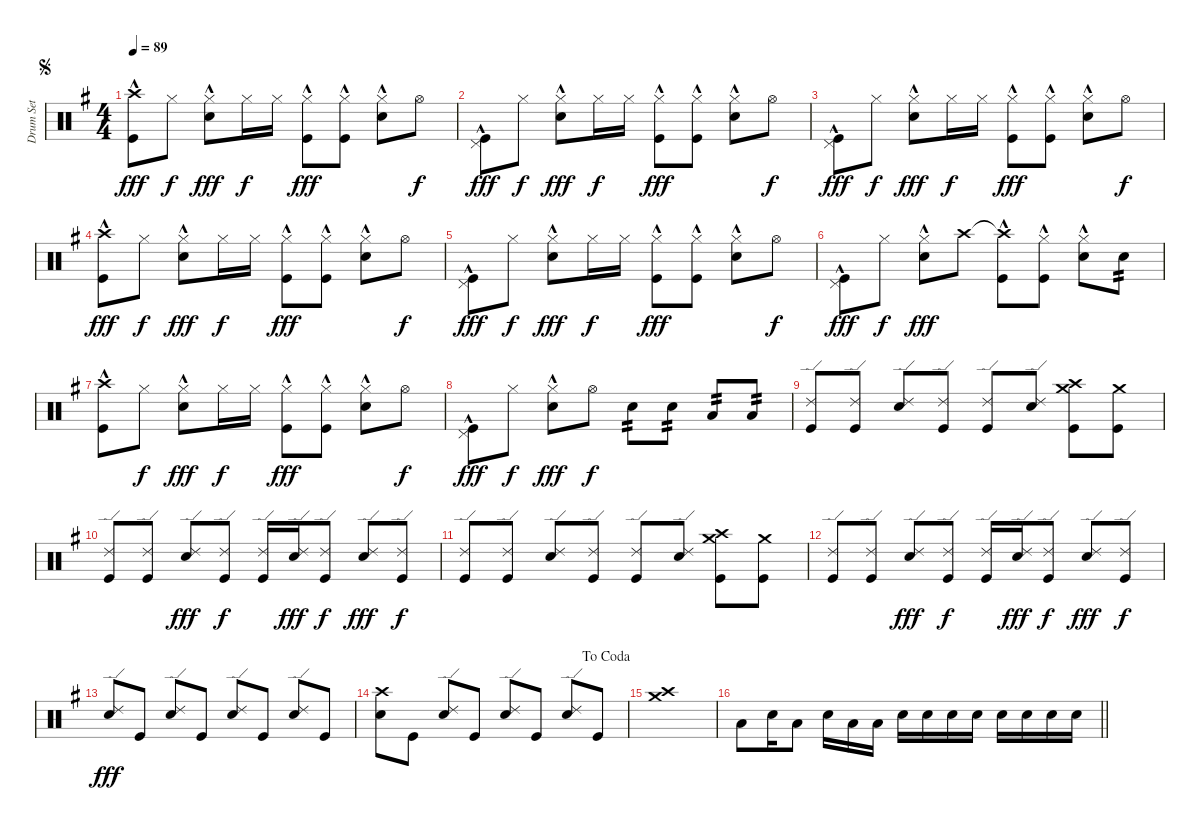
\track ("Drum Set" "Drum Set") {instrument percussion}
\staff {score}
\articulation defaults
\ts (4 4)
\jump segno
\tempo 89
\clef neutral
\ks g
("Crash high (hit)" "Kick (hit)"{hac}).8{dy fff} "Hi-Hat (closed)".8{dy f} ("Hi-Hat (closed)" "Snare (hit) 2"{hac}).8{dy fff} "Hi-Hat (closed)".16{dy f} "Hi-Hat (closed)".16 ("Hi-Hat (closed)" "Kick (hit)"{hac}).8{dy fff} ("Hi-Hat (closed)" "Kick (hit)"{hac}).8 ("Hi-Hat (closed)" "Snare (hit) 2"{hac}).8 "Hi-Hat (open)".8{dy f} |
("Pedal Hi-Hat (hit)" "Kick (hit)"{hac}).8{dy fff} "Hi-Hat (closed)".8{dy f} ("Hi-Hat (closed)" "Snare (hit) 2"{hac}).8{dy fff} "Hi-Hat (closed)".16{dy f} "Hi-Hat (closed)".16 ("Hi-Hat (closed)" "Kick (hit)"{hac}).8{dy fff} ("Hi-Hat (closed)" "Kick (hit)"{hac}).8 ("Hi-Hat (closed)" "Snare (hit) 2"{hac}).8 "Hi-Hat (open)".8{dy f} |
("Pedal Hi-Hat (hit)" "Kick (hit)"{hac}).8{dy fff} "Hi-Hat (closed)".8{dy f} ("Hi-Hat (closed)" "Snare (hit) 2"{hac}).8{dy fff} "Hi-Hat (closed)".16{dy f} "Hi-Hat (closed)".16 ("Hi-Hat (closed)" "Kick (hit)"{hac}).8{dy fff} ("Hi-Hat (closed)" "Kick (hit)"{hac}).8 ("Hi-Hat (closed)" "Snare (hit) 2"{hac}).8 "Hi-Hat (open)".8{dy f} |
("Crash high (hit)" "Kick (hit)"{hac}).8{dy fff} "Hi-Hat (closed)".8{dy f} ("Hi-Hat (closed)" "Snare (hit) 2"{hac}).8{dy fff} "Hi-Hat (closed)".16{dy f} "Hi-Hat (closed)".16 ("Hi-Hat (closed)" "Kick (hit)"{hac}).8{dy fff} ("Hi-Hat (closed)" "Kick (hit)"{hac}).8 ("Hi-Hat (closed)" "Snare (hit) 2"{hac}).8 "Hi-Hat (open)".8{dy f} |
("Pedal Hi-Hat (hit)" "Kick (hit)"{hac}).8{dy fff} "Hi-Hat (closed)".8{dy f} ("Hi-Hat (closed)" "Snare (hit) 2"{hac}).8{dy fff} "Hi-Hat (closed)".16{dy f} "Hi-Hat (closed)".16 ("Hi-Hat (closed)" "Kick (hit)"{hac}).8{dy fff} ("Hi-Hat (closed)" "Kick (hit)"{hac}).8 ("Hi-Hat (closed)" "Snare (hit) 2"{hac}).8 "Hi-Hat (open)".8{dy f} |
("Pedal Hi-Hat (hit)" "Kick (hit)"{hac}).8{dy fff} "Hi-Hat (closed)".8{dy f} ("Hi-Hat (closed)" "Snare (hit) 2"{hac}).8{dy fff} "Crash high (hit)".8 ("Crash high (hit)"{t} "Kick (hit)"{hac}).8 ("Hi-Hat (closed)" "Kick (hit)"{hac}).8 ("Hi-Hat (closed)" "Snare (hit) 2"{hac}).8 "Snare (hit) 2".8{tp 2} |
("Crash high (hit)" "Kick (hit)"{hac}).8 "Hi-Hat (closed)".8{dy f} ("Hi-Hat (closed)" "Snare (hit) 2"{hac}).8{dy fff} "Hi-Hat (closed)".16{dy f} "Hi-Hat (closed)".16 ("Hi-Hat (closed)" "Kick (hit)"{hac}).8{dy fff} ("Hi-Hat (closed)" "Kick (hit)"{hac}).8 ("Hi-Hat (closed)" "Snare (hit) 2"{hac}).8 "Hi-Hat (open)".8{dy f} |
("Pedal Hi-Hat (hit)" "Kick (hit)"{hac}).8{dy fff} "Hi-Hat (closed)".8{dy f} ("Hi-Hat (closed)" "Snare (hit) 2"{hac}).8{dy fff} "Hi-Hat (open)".8{dy f} "Snare (hit) 2".8{tp 2} "Snare (hit) 2".8{tp 2} "Low Tom (hit)".8{tp 2} "Low Tom (hit)".8{tp 2} |
("Ride (edge) 2" "Kick (hit)").8 ("Ride (edge) 2" "Kick (hit)").8 ("Ride (edge) 2" "Snare (hit) 2").8 ("Ride (edge) 2" "Kick (hit)").8 ("Ride (edge) 2" "Kick (hit)").8 ("Ride (edge) 2" "Snare (hit) 2").8 ("Crash high (hit)" "Crash medium (hit)" "Kick (hit)").8 ("Crash medium (hit)" "Kick (hit)").8 |
("Ride (edge) 2" "Kick (hit)").8 ("Ride (edge) 2" "Kick (hit)").8 ("Ride (edge) 2" "Snare (hit) 2").8{dy fff} ("Ride (edge) 2" "Kick (hit)").8{dy f} ("Ride (edge) 2" "Kick (hit)").16 ("Ride (edge) 2" "Snare (hit) 2").16{dy fff} ("Ride (edge) 2" "Kick (hit)").8{dy f} ("Ride (edge) 2" "Snare (hit) 2").8{dy fff} ("Ride (edge) 2" "Kick (hit)").8{dy f} |
("Ride (edge) 2" "Kick (hit)").8 ("Ride (edge) 2" "Kick (hit)").8 ("Ride (edge) 2" "Snare (hit) 2").8 ("Ride (edge) 2" "Kick (hit)").8 ("Ride (edge) 2" "Kick (hit)").8 ("Ride (edge) 2" "Snare (hit) 2").8 ("Crash high (hit)" "Crash medium (hit)" "Kick (hit)").8 ("Crash medium (hit)" "Kick (hit)").8 |
("Ride (edge) 2" "Kick (hit)").8 ("Ride (edge) 2" "Kick (hit)").8 ("Ride (edge) 2" "Snare (hit) 2").8{dy fff} ("Ride (edge) 2" "Kick (hit)").8{dy f} ("Ride (edge) 2" "Kick (hit)").16 ("Ride (edge) 2" "Snare (hit) 2").16{dy fff} ("Ride (edge) 2" "Kick (hit)").8{dy f} ("Ride (edge) 2" "Snare (hit) 2").8{dy fff} ("Ride (edge) 2" "Kick (hit)").8{dy f} |
("Ride (edge) 2" "Snare (hit) 2").8{dy fff} "Kick (hit)".8 ("Ride (edge) 2" "Snare (hit) 2").8 "Kick (hit)".8 ("Ride (edge) 2" "Snare (hit) 2").8 "Kick (hit)".8 ("Ride (edge) 2" "Snare (hit) 2").8 "Kick (hit)".8 |
\jump dacoda
("Crash high (hit)" "Snare (hit) 2").8 "Kick (hit)".8 ("Ride (edge) 2" "Snare (hit) 2").8 "Kick (hit)".8 ("Ride (edge) 2" "Snare (hit) 2").8 "Kick (hit)".8 ("Ride (edge) 2" "Snare (hit) 2").8 "Kick (hit)".8 |
("Crash high (hit)" "Crash medium (hit)").1 |
\barLineRight lightlight "Low Tom (hit)".8 "Snare (hit) 2".16 "Low Tom (hit)".8 "Snare (hit) 2".16 "Low Tom (hit)".16 "Low Tom (hit)".16 "Snare (hit) 2".16 "Snare (hit) 2".16 "Snare (hit) 2".16 "Snare (hit) 2".16 "Snare (hit) 2".16 "Snare (hit) 2".16 "Snare (hit) 2".16 "Snare (hit) 2".16
